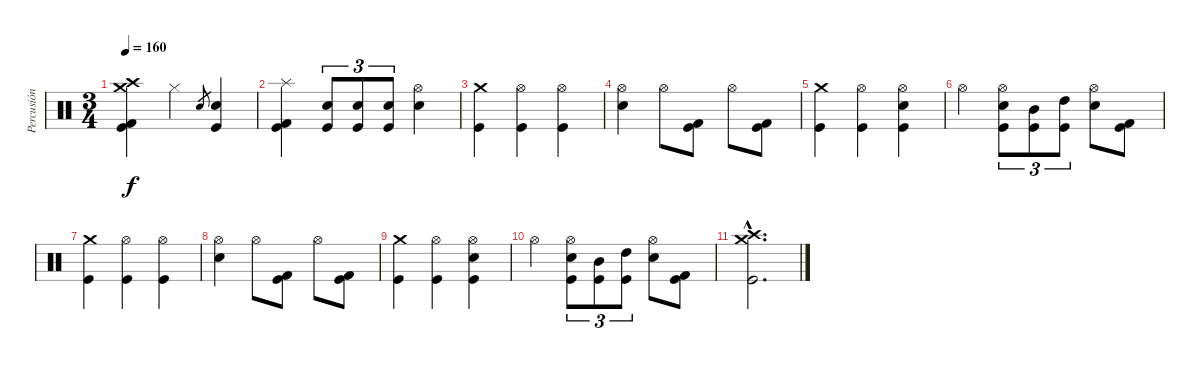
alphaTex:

\track ("Percusión" "Percusión") {instrument percussion}
\staff {score}
\articulation defaults
\ts (3 4)
\tempo 160
\clef neutral
\ks c
("Crash medium (hit)" "Crash high (hit)" "Kick (hit) 2" "Kick (hit)").4{dy f} "Hi-Hat (closed)".4 "Electric Snare (hit)".8{gr} ("Electric Snare (hit)" "Kick (hit)").4 |
("Splash (hit)" "Kick (hit) 2" "Kick (hit)").4 ("Electric Snare (hit)" "Kick (hit)").8{tu (3 2)} ("Electric Snare (hit)" "Kick (hit)").8{tu (3 2)} ("Electric Snare (hit)" "Kick (hit)").8{tu (3 2)} ("Hi-Hat (open)" "Electric Snare (hit)").4 |
("Crash medium (hit)" "Kick (hit)").4 ("Hi-Hat (open)" "Kick (hit)").4 ("Hi-Hat (open)" "Kick (hit)").4 |
("Hi-Hat (open)" "Electric Snare (hit)").4 "Hi-Hat (open)".8 ("Kick (hit) 2" "Kick (hit)").8 "Hi-Hat (open)".8 ("Kick (hit) 2" "Kick (hit)").8 |
("Crash medium (hit)" "Kick (hit)").4 ("Hi-Hat (open)" "Kick (hit)").4 ("Hi-Hat (open)" "Electric Snare (hit)" "Kick (hit)").4 |
"Hi-Hat (open)".4 ("Hi-Hat (open)" "Electric Snare (hit)" "Kick (hit)").8{tu (3 2)} ("Mid Tom (hit)" "Kick (hit)").8{tu (3 2)} ("High Tom (hit)" "Kick (hit)").8{tu (3 2)} ("Hi-Hat (open)" "Electric Snare (hit)").8 ("Kick (hit) 2" "Kick (hit)").8 |
("Crash medium (hit)" "Kick (hit)").4 ("Hi-Hat (open)" "Kick (hit)").4 ("Hi-Hat (open)" "Kick (hit)").4 |
("Hi-Hat (open)" "Electric Snare (hit)").4 "Hi-Hat (open)".8 ("Kick (hit) 2" "Kick (hit)").8 "Hi-Hat (open)".8 ("Kick (hit) 2" "Kick (hit)").8 |
("Crash medium (hit)" "Kick (hit)").4 ("Hi-Hat (open)" "Kick (hit)").4 ("Hi-Hat (open)" "Electric Snare (hit)" "Kick (hit)").4 |
"Hi-Hat (open)".4 ("Hi-Hat (open)" "Electric Snare (hit)" "Kick (hit)").8{tu (3 2)} ("Mid Tom (hit)" "Kick (hit)").8{tu (3 2)} ("High Tom (hit)" "Kick (hit)").8{tu (3 2)} ("Hi-Hat (open)" "Electric Snare (hit)").8 ("Kick (hit) 2" "Kick (hit)").8 |
("Crash medium (hit)"{hac} "Crash high (hit)"{hac} "Kick (hit)"{hac}).2{d}
